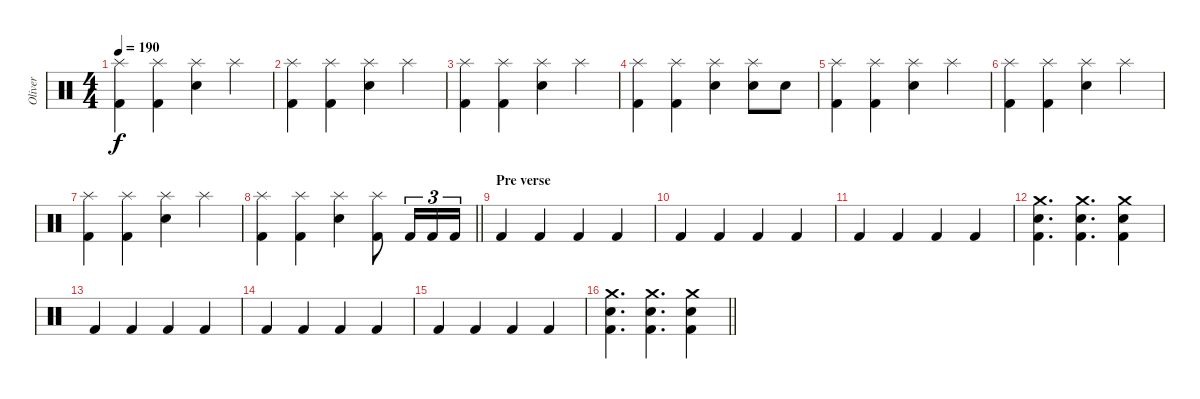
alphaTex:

\track ("Oliver" "Oliver") {instrument percussion}
\staff {score}
\articulation defaults
\ts (4 4)
\tempo 190
\clef neutral
\ks c
("Splash (hit)" "Kick (hit) 2").4{dy f} ("Splash (hit)" "Kick (hit) 2").4 ("Splash (hit)" "Snare (hit) 2").4 "Splash (hit)".4 |
("Splash (hit)" "Kick (hit) 2").4 ("Splash (hit)" "Kick (hit) 2").4 ("Splash (hit)" "Snare (hit) 2").4 "Splash (hit)".4 |
("Splash (hit)" "Kick (hit) 2").4 ("Splash (hit)" "Kick (hit) 2").4 ("Splash (hit)" "Snare (hit) 2").4 "Splash (hit)".4 |
("Splash (hit)" "Kick (hit) 2").4 ("Splash (hit)" "Kick (hit) 2").4 ("Splash (hit)" "Snare (hit) 2").4 ("Splash (hit)" "Snare (hit) 2").8 "Snare (hit) 2".8 |
("Splash (hit)" "Kick (hit) 2").4 ("Splash (hit)" "Kick (hit) 2").4 ("Splash (hit)" "Snare (hit) 2").4 "Splash (hit)".4 |
("Splash (hit)" "Kick (hit) 2").4 ("Splash (hit)" "Kick (hit) 2").4 ("Splash (hit)" "Snare (hit) 2").4 "Splash (hit)".4 |
("Splash (hit)" "Kick (hit) 2").4 ("Splash (hit)" "Kick (hit) 2").4 ("Splash (hit)" "Snare (hit) 2").4 "Splash (hit)".4 |
\barLineRight lightlight
("Splash (hit)" "Kick (hit) 2").4 ("Splash (hit)" "Kick (hit) 2").4 ("Splash (hit)" "Snare (hit) 2").4 ("Splash (hit)" "Kick (hit) 2").8 "Kick (hit) 2".16{tu (3 2)} "Kick (hit) 2".16{tu (3 2)} "Kick (hit) 2".16{tu (3 2)} |
\section ("" "Pre verse")
"Kick (hit) 2".4 "Kick (hit) 2".4 "Kick (hit) 2".4 "Kick (hit) 2".4 |
"Kick (hit) 2".4 "Kick (hit) 2".4 "Kick (hit) 2".4 "Kick (hit) 2".4 |
"Kick (hit) 2".4 "Kick (hit) 2".4 "Kick (hit) 2".4 "Kick (hit) 2".4 |
("Crash medium (hit)" "Kick (hit) 2" "Snare (hit) 2").4{d} ("Crash medium (hit)" "Kick (hit) 2" "Snare (hit) 2").4{d} ("Crash medium (hit)" "Kick (hit) 2" "Snare (hit) 2").4 |
"Kick (hit) 2".4 "Kick (hit) 2".4 "Kick (hit) 2".4 "Kick (hit) 2".4 |
"Kick (hit) 2".4 "Kick (hit) 2".4 "Kick (hit) 2".4 "Kick (hit) 2".4 |
"Kick (hit) 2".4 "Kick (hit) 2".4 "Kick (hit) 2".4 "Kick (hit) 2".4 |
\barLineRight lightlight
("Crash medium (hit)" "Kick (hit) 2" "Snare (hit) 2").4{d} ("Crash medium (hit)" "Kick (hit) 2" "Snare (hit) 2").4{d} ("Crash medium (hit)" "Kick (hit) 2" "Snare (hit) 2").4
